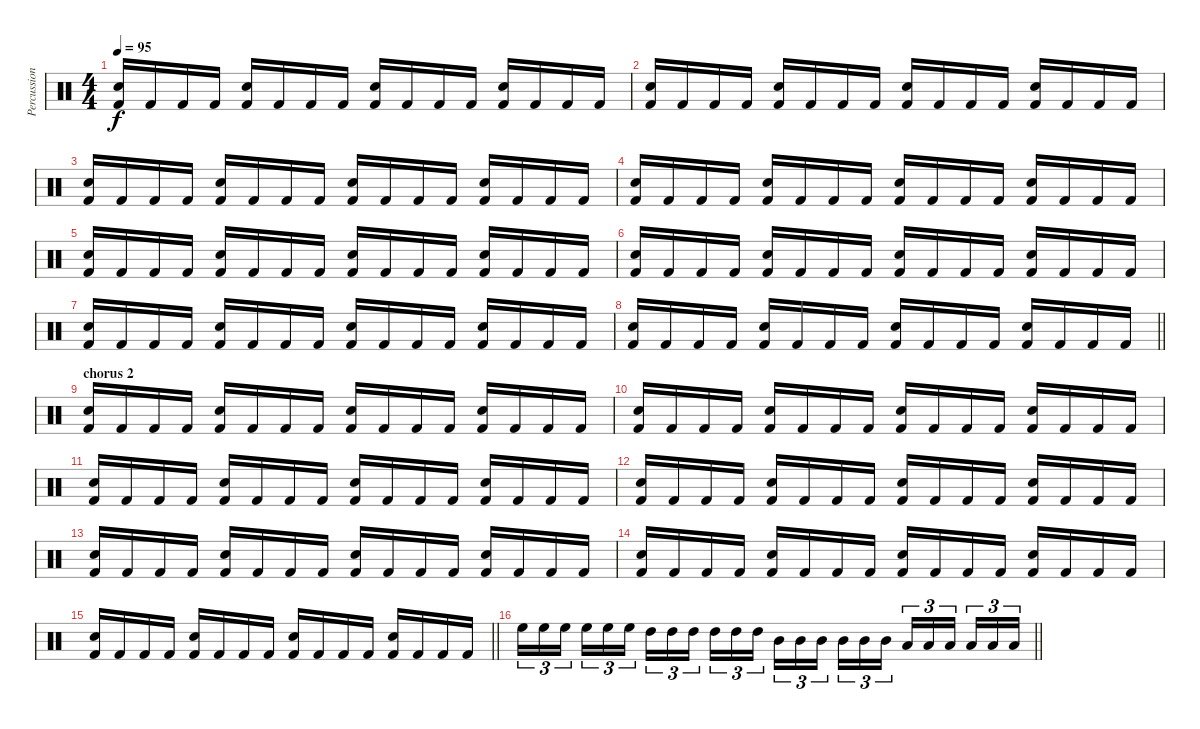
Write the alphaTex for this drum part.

\track ("Percussioni" "Percussion") {instrument percussion}
\staff {score}
\articulation defaults
\ts (4 4)
\tempo 95
\clef neutral
\ks c
("Snare (hit) 2" "Kick (hit) 2").16{dy f} "Kick (hit) 2".16 "Kick (hit) 2".16 "Kick (hit) 2".16 ("Snare (hit) 2" "Kick (hit) 2").16 "Kick (hit) 2".16 "Kick (hit) 2".16 "Kick (hit) 2".16 ("Snare (hit) 2" "Kick (hit) 2").16 "Kick (hit) 2".16 "Kick (hit) 2".16 "Kick (hit) 2".16 ("Snare (hit) 2" "Kick (hit) 2").16 "Kick (hit) 2".16 "Kick (hit) 2".16 "Kick (hit) 2".16 |
("Snare (hit) 2" "Kick (hit) 2").16 "Kick (hit) 2".16 "Kick (hit) 2".16 "Kick (hit) 2".16 ("Snare (hit) 2" "Kick (hit) 2").16 "Kick (hit) 2".16 "Kick (hit) 2".16 "Kick (hit) 2".16 ("Snare (hit) 2" "Kick (hit) 2").16 "Kick (hit) 2".16 "Kick (hit) 2".16 "Kick (hit) 2".16 ("Snare (hit) 2" "Kick (hit) 2").16 "Kick (hit) 2".16 "Kick (hit) 2".16 "Kick (hit) 2".16 |
("Snare (hit) 2" "Kick (hit) 2").16 "Kick (hit) 2".16 "Kick (hit) 2".16 "Kick (hit) 2".16 ("Snare (hit) 2" "Kick (hit) 2").16 "Kick (hit) 2".16 "Kick (hit) 2".16 "Kick (hit) 2".16 ("Snare (hit) 2" "Kick (hit) 2").16 "Kick (hit) 2".16 "Kick (hit) 2".16 "Kick (hit) 2".16 ("Snare (hit) 2" "Kick (hit) 2").16 "Kick (hit) 2".16 "Kick (hit) 2".16 "Kick (hit) 2".16 |
("Snare (hit) 2" "Kick (hit) 2").16 "Kick (hit) 2".16 "Kick (hit) 2".16 "Kick (hit) 2".16 ("Snare (hit) 2" "Kick (hit) 2").16 "Kick (hit) 2".16 "Kick (hit) 2".16 "Kick (hit) 2".16 ("Snare (hit) 2" "Kick (hit) 2").16 "Kick (hit) 2".16 "Kick (hit) 2".16 "Kick (hit) 2".16 ("Snare (hit) 2" "Kick (hit) 2").16 "Kick (hit) 2".16 "Kick (hit) 2".16 "Kick (hit) 2".16 |
("Snare (hit) 2" "Kick (hit) 2").16 "Kick (hit) 2".16 "Kick (hit) 2".16 "Kick (hit) 2".16 ("Snare (hit) 2" "Kick (hit) 2").16 "Kick (hit) 2".16 "Kick (hit) 2".16 "Kick (hit) 2".16 ("Snare (hit) 2" "Kick (hit) 2").16 "Kick (hit) 2".16 "Kick (hit) 2".16 "Kick (hit) 2".16 ("Snare (hit) 2" "Kick (hit) 2").16 "Kick (hit) 2".16 "Kick (hit) 2".16 "Kick (hit) 2".16 |
("Snare (hit) 2" "Kick (hit) 2").16 "Kick (hit) 2".16 "Kick (hit) 2".16 "Kick (hit) 2".16 ("Snare (hit) 2" "Kick (hit) 2").16 "Kick (hit) 2".16 "Kick (hit) 2".16 "Kick (hit) 2".16 ("Snare (hit) 2" "Kick (hit) 2").16 "Kick (hit) 2".16 "Kick (hit) 2".16 "Kick (hit) 2".16 ("Snare (hit) 2" "Kick (hit) 2").16 "Kick (hit) 2".16 "Kick (hit) 2".16 "Kick (hit) 2".16 |
("Snare (hit) 2" "Kick (hit) 2").16 "Kick (hit) 2".16 "Kick (hit) 2".16 "Kick (hit) 2".16 ("Snare (hit) 2" "Kick (hit) 2").16 "Kick (hit) 2".16 "Kick (hit) 2".16 "Kick (hit) 2".16 ("Snare (hit) 2" "Kick (hit) 2").16 "Kick (hit) 2".16 "Kick (hit) 2".16 "Kick (hit) 2".16 ("Snare (hit) 2" "Kick (hit) 2").16 "Kick (hit) 2".16 "Kick (hit) 2".16 "Kick (hit) 2".16 |
\barLineRight lightlight
("Snare (hit) 2" "Kick (hit) 2").16 "Kick (hit) 2".16 "Kick (hit) 2".16 "Kick (hit) 2".16 ("Snare (hit) 2" "Kick (hit) 2").16 "Kick (hit) 2".16 "Kick (hit) 2".16 "Kick (hit) 2".16 ("Snare (hit) 2" "Kick (hit) 2").16 "Kick (hit) 2".16 "Kick (hit) 2".16 "Kick (hit) 2".16 ("Snare (hit) 2" "Kick (hit) 2").16 "Kick (hit) 2".16 "Kick (hit) 2".16 "Kick (hit) 2".16 |
\section ("" "chorus 2")
("Snare (hit) 2" "Kick (hit) 2").16 "Kick (hit) 2".16 "Kick (hit) 2".16 "Kick (hit) 2".16 ("Snare (hit) 2" "Kick (hit) 2").16 "Kick (hit) 2".16 "Kick (hit) 2".16 "Kick (hit) 2".16 ("Snare (hit) 2" "Kick (hit) 2").16 "Kick (hit) 2".16 "Kick (hit) 2".16 "Kick (hit) 2".16 ("Snare (hit) 2" "Kick (hit) 2").16 "Kick (hit) 2".16 "Kick (hit) 2".16 "Kick (hit) 2".16 |
("Snare (hit) 2" "Kick (hit) 2").16 "Kick (hit) 2".16 "Kick (hit) 2".16 "Kick (hit) 2".16 ("Snare (hit) 2" "Kick (hit) 2").16 "Kick (hit) 2".16 "Kick (hit) 2".16 "Kick (hit) 2".16 ("Snare (hit) 2" "Kick (hit) 2").16 "Kick (hit) 2".16 "Kick (hit) 2".16 "Kick (hit) 2".16 ("Snare (hit) 2" "Kick (hit) 2").16 "Kick (hit) 2".16 "Kick (hit) 2".16 "Kick (hit) 2".16 |
("Snare (hit) 2" "Kick (hit) 2").16 "Kick (hit) 2".16 "Kick (hit) 2".16 "Kick (hit) 2".16 ("Snare (hit) 2" "Kick (hit) 2").16 "Kick (hit) 2".16 "Kick (hit) 2".16 "Kick (hit) 2".16 ("Snare (hit) 2" "Kick (hit) 2").16 "Kick (hit) 2".16 "Kick (hit) 2".16 "Kick (hit) 2".16 ("Snare (hit) 2" "Kick (hit) 2").16 "Kick (hit) 2".16 "Kick (hit) 2".16 "Kick (hit) 2".16 |
("Snare (hit) 2" "Kick (hit) 2").16 "Kick (hit) 2".16 "Kick (hit) 2".16 "Kick (hit) 2".16 ("Snare (hit) 2" "Kick (hit) 2").16 "Kick (hit) 2".16 "Kick (hit) 2".16 "Kick (hit) 2".16 ("Snare (hit) 2" "Kick (hit) 2").16 "Kick (hit) 2".16 "Kick (hit) 2".16 "Kick (hit) 2".16 ("Snare (hit) 2" "Kick (hit) 2").16 "Kick (hit) 2".16 "Kick (hit) 2".16 "Kick (hit) 2".16 |
("Snare (hit) 2" "Kick (hit) 2").16 "Kick (hit) 2".16 "Kick (hit) 2".16 "Kick (hit) 2".16 ("Snare (hit) 2" "Kick (hit) 2").16 "Kick (hit) 2".16 "Kick (hit) 2".16 "Kick (hit) 2".16 ("Snare (hit) 2" "Kick (hit) 2").16 "Kick (hit) 2".16 "Kick (hit) 2".16 "Kick (hit) 2".16 ("Snare (hit) 2" "Kick (hit) 2").16 "Kick (hit) 2".16 "Kick (hit) 2".16 "Kick (hit) 2".16 |
("Snare (hit) 2" "Kick (hit) 2").16 "Kick (hit) 2".16 "Kick (hit) 2".16 "Kick (hit) 2".16 ("Snare (hit) 2" "Kick (hit) 2").16 "Kick (hit) 2".16 "Kick (hit) 2".16 "Kick (hit) 2".16 ("Snare (hit) 2" "Kick (hit) 2").16 "Kick (hit) 2".16 "Kick (hit) 2".16 "Kick (hit) 2".16 ("Snare (hit) 2" "Kick (hit) 2").16 "Kick (hit) 2".16 "Kick (hit) 2".16 "Kick (hit) 2".16 |
\barLineRight lightlight
("Snare (hit) 2" "Kick (hit) 2").16 "Kick (hit) 2".16 "Kick (hit) 2".16 "Kick (hit) 2".16 ("Snare (hit) 2" "Kick (hit) 2").16 "Kick (hit) 2".16 "Kick (hit) 2".16 "Kick (hit) 2".16 ("Snare (hit) 2" "Kick (hit) 2").16 "Kick (hit) 2".16 "Kick (hit) 2".16 "Kick (hit) 2".16 ("Snare (hit) 2" "Kick (hit) 2").16 "Kick (hit) 2".16 "Kick (hit) 2".16 "Kick (hit) 2".16 |
\barLineRight lightlight "High Floor Tom (hit)".16{tu (3 2)} "High Floor Tom (hit)".16{tu (3 2)} "High Floor Tom (hit)".16{tu (3 2) beam splitsecondary} "High Floor Tom (hit)".16{tu (3 2)} "High Floor Tom (hit)".16{tu (3 2)} "High Floor Tom (hit)".16{tu (3 2)} "High Tom (hit)".16{tu (3 2)} "High Tom (hit)".16{tu (3 2)} "High Tom (hit)".16{tu (3 2) beam splitsecondary} "High Tom (hit)".16{tu (3 2)} "High Tom (hit)".16{tu (3 2)} "High Tom (hit)".16{tu (3 2)} "Mid Tom (hit)".16{tu (3 2)} "Mid Tom (hit)".16{tu (3 2)} "Mid Tom (hit)".16{tu (3 2) beam splitsecondary} "Mid Tom (hit)".16{tu (3 2)} "Mid Tom (hit)".16{tu (3 2)} "Mid Tom (hit)".16{tu (3 2)} "Low Tom (hit)".16{tu (3 2)} "Low Tom (hit)".16{tu (3 2)} "Low Tom (hit)".16{tu (3 2) beam splitsecondary} "Low Tom (hit)".16{tu (3 2)} "Low Tom (hit)".16{tu (3 2)} "Low Tom (hit)".16{tu (3 2)}
